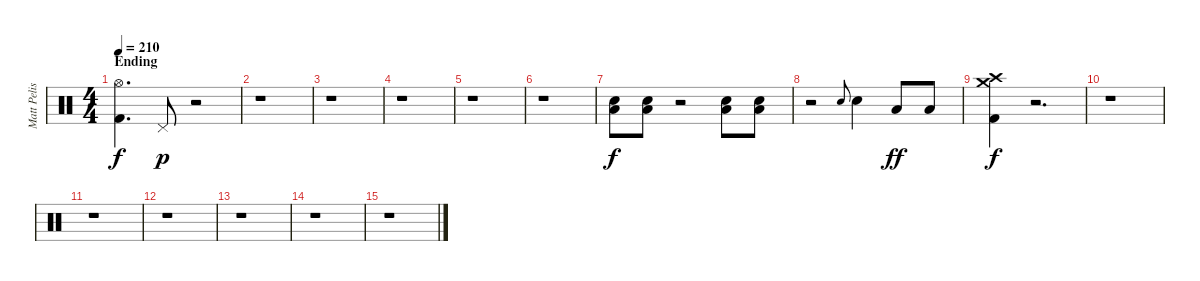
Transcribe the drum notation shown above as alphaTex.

\track ("Matt Pelissier" "Matt Pelis") {instrument percussion}
\staff {score}
\articulation defaults
\ts (4 4)
\section ("" "Ending")
\tempo 210
\clef neutral
\ks c
("Hi-Hat (open)" "Kick (hit) 2").4{d dy f} "Pedal Hi-Hat (hit)".8{dy p} r.2 |
r.1 |
r.1 |
r.1 |
r.1 |
r.1 |
("Low Tom (hit)" "Snare (hit) 2").8{dy f} ("Low Tom (hit)" "Snare (hit) 2").8 r.2 ("Low Tom (hit)" "Snare (hit) 2").8 ("Low Tom (hit)" "Snare (hit) 2").8 |
r.2 "Snare (hit) 2".8{gr onbeat} "Snare (hit) 2".4 "Low Tom (hit)".8{dy ff} "Low Tom (hit)".8 |
("Crash medium (hit)" "Crash high (hit)" "Kick (hit) 2").4{dy f} r.2{d} |
r.1 |
r.1 |
r.1 |
r.1 |
r.1 |
r.1
